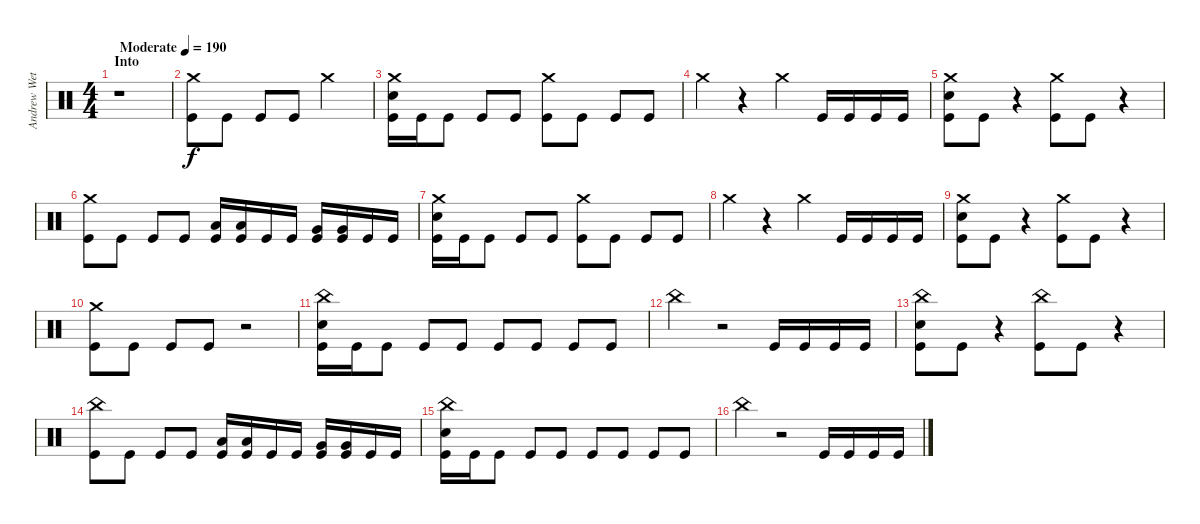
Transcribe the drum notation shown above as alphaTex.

\track ("Andrew Wetzel" "Andrew Wet") {instrument percussion}
\staff {score}
\articulation defaults
\ts (4 4)
\section ("" "Into")
\tempo (190 "Moderate")
\clef neutral
\ks c
r.1{dy f} |
("Crash medium (hit)" "Kick (hit)").8 "Kick (hit)".8 "Kick (hit)".8 "Kick (hit)".8 "Crash medium (hit)".2 |
("Crash medium (hit)" "Snare (hit) 2" "Kick (hit)").16 "Kick (hit)".16 "Kick (hit)".8 "Kick (hit)".8 "Kick (hit)".8 ("Crash medium (hit)" "Kick (hit)").8 "Kick (hit)".8 "Kick (hit)".8 "Kick (hit)".8 |
"Crash medium (hit)".4 r.4 "Crash medium (hit)".4 "Kick (hit)".16 "Kick (hit)".16 "Kick (hit)".16 "Kick (hit)".16 |
("Crash medium (hit)" "Snare (hit) 2" "Kick (hit)").8 "Kick (hit)".8 r.4 ("Crash medium (hit)" "Kick (hit)").8 "Kick (hit)".8 r.4 |
("Crash medium (hit)" "Kick (hit)").8 "Kick (hit)".8 "Kick (hit)".8 "Kick (hit)".8 ("Low Tom (hit)" "Kick (hit)").16 ("Low Tom (hit)" "Kick (hit)").16 "Kick (hit)".16 "Kick (hit)".16 ("Very Low Tom (hit)" "Kick (hit)").16 ("Very Low Tom (hit)" "Kick (hit)").16 "Kick (hit)".16 "Kick (hit)".16 |
("Crash medium (hit)" "Snare (hit) 2" "Kick (hit)").16 "Kick (hit)".16 "Kick (hit)".8 "Kick (hit)".8 "Kick (hit)".8 ("Crash medium (hit)" "Kick (hit)").8 "Kick (hit)".8 "Kick (hit)".8 "Kick (hit)".8 |
"Crash medium (hit)".4 r.4 "Crash medium (hit)".4 "Kick (hit)".16 "Kick (hit)".16 "Kick (hit)".16 "Kick (hit)".16 |
("Crash medium (hit)" "Snare (hit) 2" "Kick (hit)").8 "Kick (hit)".8 r.4 ("Crash medium (hit)" "Kick (hit)").8 "Kick (hit)".8 r.4 |
("Crash medium (hit)" "Kick (hit)").8 "Kick (hit)".8 "Kick (hit)".8 "Kick (hit)".8 r.2 |
("China (hit)" "Snare (hit) 2" "Kick (hit)").16 "Kick (hit)".16 "Kick (hit)".8 "Kick (hit)".8 "Kick (hit)".8 "Kick (hit)".8 "Kick (hit)".8 "Kick (hit)".8 "Kick (hit)".8 |
"China (hit)".4 r.2 "Kick (hit)".16 "Kick (hit)".16 "Kick (hit)".16 "Kick (hit)".16 |
("China (hit)" "Snare (hit) 2" "Kick (hit)").8 "Kick (hit)".8 r.4 ("China (hit)" "Kick (hit)").8 "Kick (hit)".8 r.4 |
("China (hit)" "Kick (hit)").8 "Kick (hit)".8 "Kick (hit)".8 "Kick (hit)".8 ("Low Tom (hit)" "Kick (hit)").16 ("Low Tom (hit)" "Kick (hit)").16 "Kick (hit)".16 "Kick (hit)".16 ("Very Low Tom (hit)" "Kick (hit)").16 ("Very Low Tom (hit)" "Kick (hit)").16 "Kick (hit)".16 "Kick (hit)".16 |
("China (hit)" "Snare (hit) 2" "Kick (hit)").16 "Kick (hit)".16 "Kick (hit)".8 "Kick (hit)".8 "Kick (hit)".8 "Kick (hit)".8 "Kick (hit)".8 "Kick (hit)".8 "Kick (hit)".8 |
"China (hit)".4 r.2 "Kick (hit)".16 "Kick (hit)".16 "Kick (hit)".16 "Kick (hit)".16
